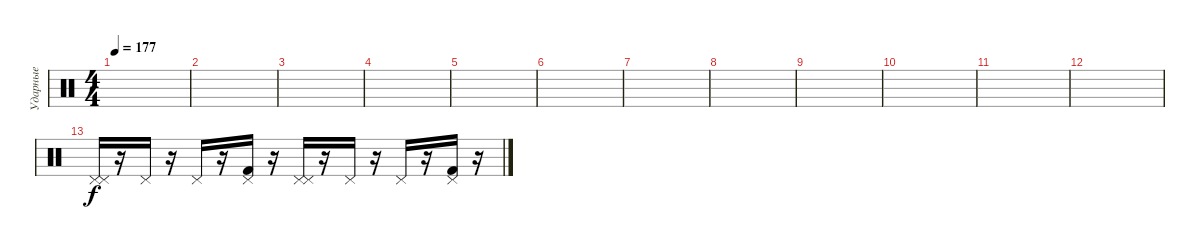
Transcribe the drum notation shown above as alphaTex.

\track ("Ударные" "Ударные") {instrument percussion}
\staff {score}
\articulation defaults
\ts (4 4)
\tempo 177
\clef neutral
\ks c
|
|
|
|
|
|
|
|
|
|
|
|
("Pedal Hi-Hat (hit)" "Pedal Hi-Hat (hit)").16 r.16 "Pedal Hi-Hat (hit)".16 r.16 "Pedal Hi-Hat (hit)".16 r.16 ("Kick (hit) 2" "Pedal Hi-Hat (hit)").16 r.16 ("Pedal Hi-Hat (hit)" "Pedal Hi-Hat (hit)").16 r.16 "Pedal Hi-Hat (hit)".16 r.16 "Pedal Hi-Hat (hit)".16 r.16 ("Kick (hit) 2" "Pedal Hi-Hat (hit)").16 r.16
